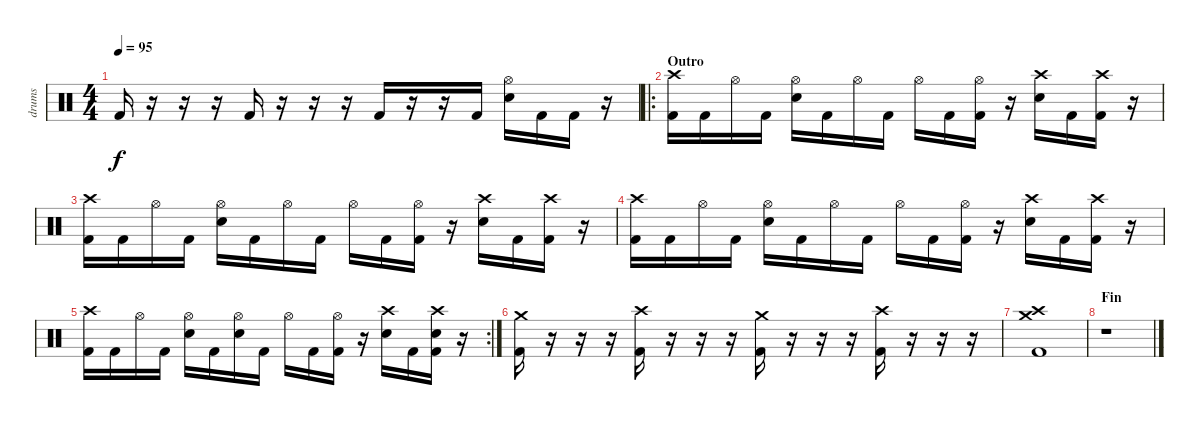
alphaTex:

\track ("drums" "drums") {instrument percussion}
\staff {score}
\articulation defaults
\ts (4 4)
\tempo 95
\clef neutral
\ks c "Kick (hit) 2".16{dy f}
r.16 r.16 r.16 "Kick (hit) 2".16 r.16 r.16 r.16 "Kick (hit) 2".16 r.16 r.16 "Kick (hit) 2".16 ("Electric Snare (hit)" "Hi-Hat (open)").16 "Kick (hit) 2".16 "Kick (hit) 2".16 r.16 |
\ro
\section ("" "Outro")
("Kick (hit) 2" "Crash high (hit)").16{volume 13} "Kick (hit) 2".16 "Hi-Hat (open)".16 "Kick (hit) 2".16 ("Electric Snare (hit)" "Hi-Hat (open)").16 "Kick (hit) 2".16 "Hi-Hat (open)".16 "Kick (hit) 2".16 "Hi-Hat (open)".16 "Kick (hit) 2".16 ("Kick (hit) 2" "Hi-Hat (open)").16 r.16 ("Electric Snare (hit)" "Crash high (hit)").16 "Kick (hit) 2".16 ("Kick (hit) 2" "Crash high (hit)").16 r.16 |
("Kick (hit) 2" "Crash high (hit)").16 "Kick (hit) 2".16 "Hi-Hat (open)".16 "Kick (hit) 2".16 ("Electric Snare (hit)" "Hi-Hat (open)").16 "Kick (hit) 2".16 "Hi-Hat (open)".16 "Kick (hit) 2".16 "Hi-Hat (open)".16 "Kick (hit) 2".16 ("Kick (hit) 2" "Hi-Hat (open)").16 r.16 ("Electric Snare (hit)" "Crash high (hit)").16 "Kick (hit) 2".16 ("Kick (hit) 2" "Crash high (hit)").16 r.16 |
("Kick (hit) 2" "Crash high (hit)").16 "Kick (hit) 2".16 "Hi-Hat (open)".16 "Kick (hit) 2".16 ("Electric Snare (hit)" "Hi-Hat (open)").16 "Kick (hit) 2".16 "Hi-Hat (open)".16 "Kick (hit) 2".16 "Hi-Hat (open)".16 "Kick (hit) 2".16 ("Kick (hit) 2" "Hi-Hat (open)").16 r.16 ("Electric Snare (hit)" "Crash high (hit)").16 "Kick (hit) 2".16 ("Kick (hit) 2" "Crash high (hit)").16 r.16 |
\rc 2
("Kick (hit) 2" "Crash high (hit)").16 "Kick (hit) 2".16 "Hi-Hat (open)".16 "Kick (hit) 2".16 ("Electric Snare (hit)" "Hi-Hat (open)").16 "Kick (hit) 2".16 ("Electric Snare (hit)" "Hi-Hat (open)").16 "Kick (hit) 2".16 "Hi-Hat (open)".16 "Kick (hit) 2".16 ("Kick (hit) 2" "Hi-Hat (open)").16 r.16 ("Electric Snare (hit)" "Crash high (hit)").16 "Kick (hit) 2".16 ("Kick (hit) 2" "Electric Snare (hit)" "Crash high (hit)").16 r.16 |
("Kick (hit) 2" "Crash medium (hit)").16 r.16 r.16 r.16 ("Kick (hit) 2" "Crash high (hit)").16 r.16 r.16 r.16 ("Kick (hit) 2" "Crash medium (hit)").16 r.16 r.16 r.16 ("Kick (hit) 2" "Crash high (hit)").16 r.16 r.16 r.16 |
("Kick (hit) 2" "Crash high (hit)" "Crash medium (hit)").1 |
\section ("" "Fin")
r.1
